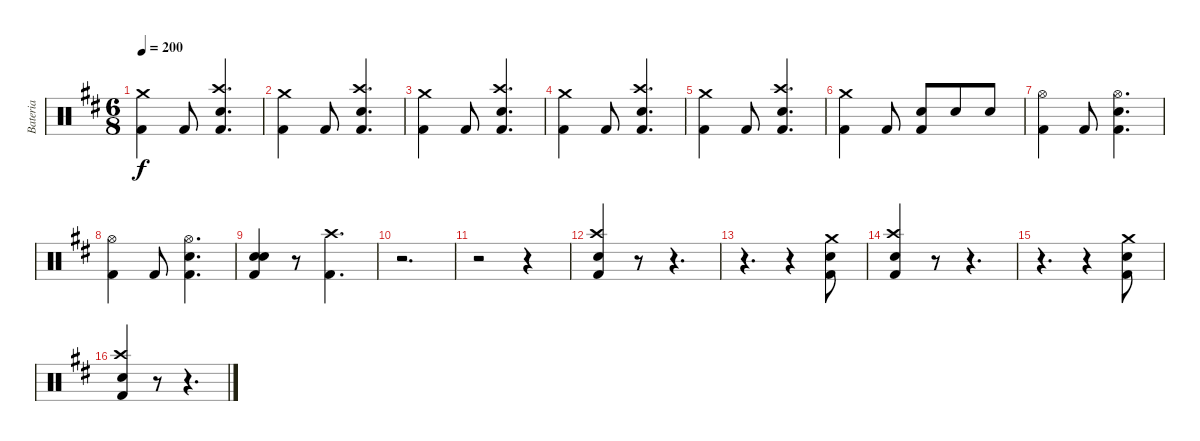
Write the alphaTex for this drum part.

\track ("Bateria" "Bateria") {instrument percussion}
\staff {score}
\articulation defaults
\ts (6 8)
\tempo 200
\clef neutral
\ks bminor
("Crash medium (hit)" "Kick (hit) 2").4{dy f} "Kick (hit) 2".8 ("Crash high (hit)" "Electric Snare (hit)" "Kick (hit) 2").4{d} |
("Crash medium (hit)" "Kick (hit) 2").4 "Kick (hit) 2".8 ("Crash high (hit)" "Electric Snare (hit)" "Kick (hit) 2").4{d} |
("Crash medium (hit)" "Kick (hit) 2").4 "Kick (hit) 2".8 ("Crash high (hit)" "Electric Snare (hit)" "Kick (hit) 2").4{d} |
("Crash medium (hit)" "Kick (hit) 2").4 "Kick (hit) 2".8 ("Crash high (hit)" "Electric Snare (hit)" "Kick (hit) 2").4{d} |
("Crash medium (hit)" "Kick (hit) 2").4 "Kick (hit) 2".8 ("Crash high (hit)" "Electric Snare (hit)" "Kick (hit) 2").4{d} |
("Crash medium (hit)" "Kick (hit) 2").4 "Kick (hit) 2".8 ("Electric Snare (hit)" "Kick (hit) 2").8 "Electric Snare (hit)".8 "Electric Snare (hit)".8 |
("Hi-Hat (open)" "Kick (hit) 2").4 "Kick (hit) 2".8 ("Hi-Hat (open)" "Electric Snare (hit)" "Kick (hit) 2").4{d} |
("Hi-Hat (open)" "Kick (hit) 2").4 "Kick (hit) 2".8 ("Hi-Hat (open)" "Electric Snare (hit)" "Kick (hit) 2").4{d} |
("Electric Snare (hit)" "Electric Snare (hit)" "Kick (hit) 2").4 r.8 ("Crash high (hit)" "Kick (hit) 2").4{d} |
r.2{d} |
r.2 r.4 |
("Crash high (hit)" "Electric Snare (hit)" "Kick (hit) 2").4 r.8 r.4{d} |
r.4{d} r.4 ("Crash medium (hit)" "Electric Snare (hit)" "Kick (hit) 2").8 |
("Crash high (hit)" "Electric Snare (hit)" "Kick (hit) 2").4 r.8 r.4{d} |
r.4{d} r.4 ("Crash medium (hit)" "Electric Snare (hit)" "Kick (hit) 2").8 |
("Crash high (hit)" "Electric Snare (hit)" "Kick (hit) 2").4 r.8 r.4{d}
